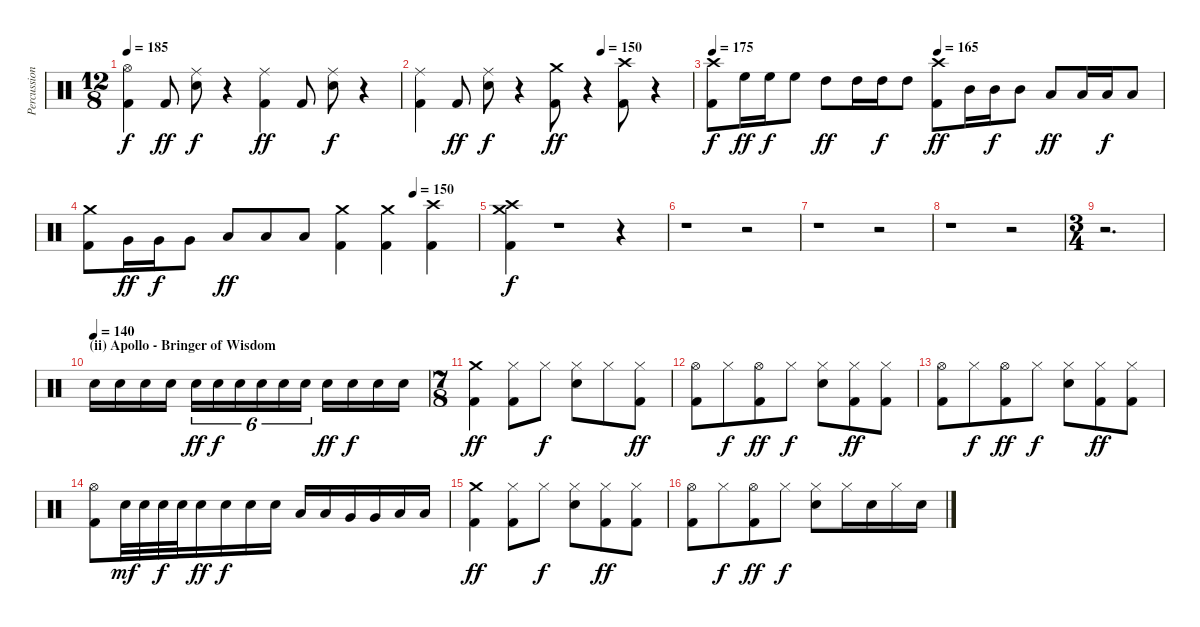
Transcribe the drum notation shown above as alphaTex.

\track ("Percussion" "Percussion") {instrument percussion}
\staff {score}
\articulation defaults
\ts (12 8)
\tempo 185
\clef neutral
\ks c
("Kick (hit) 2" "Hi-Hat (open)").4{dy f} "Kick (hit) 2".8{dy ff} ("Snare (hit) 2" "Ride (middle)").8{dy f} r.4 ("Kick (hit) 2" "Ride (middle)").4{dy ff} "Kick (hit) 2".8 ("Snare (hit) 2" "Ride (middle)").8{dy f} r.4 |
\tempo (150 0.6666666666666666)
("Kick (hit) 2" "Ride (middle)").4 "Kick (hit) 2".8{dy ff} ("Snare (hit) 2" "Ride (middle)").8{dy f} r.4 ("Kick (hit) 2" "Crash medium (hit)").8{dy ff} r.4 ("Kick (hit) 2" "Crash high (hit)").8 r.4 |
\tempo 175
\tempo (165 0.5)
("Kick (hit) 2" "Crash high (hit)").8{dy f} "High Floor Tom (hit)".16{dy ff} "High Floor Tom (hit)".16{dy f} "High Floor Tom (hit)".8 "High Tom (hit)".8{dy ff} "High Tom (hit)".16 "High Tom (hit)".16{dy f} "High Tom (hit)".8 ("Kick (hit) 2" "Crash high (hit)").8{dy ff} "Mid Tom (hit)".16 "Mid Tom (hit)".16{dy f} "Mid Tom (hit)".8 "Low Tom (hit)".8{dy ff} "Low Tom (hit)".16 "Low Tom (hit)".16{dy f} "Low Tom (hit)".8 |
\tempo (150 0.8333333333333334)
("Kick (hit) 2" "Crash medium (hit)").8 "Very Low Tom (hit)".16{dy ff} "Very Low Tom (hit)".16{dy f} "Very Low Tom (hit)".8 "Low Floor Tom (hit)".8{dy ff} "Low Floor Tom (hit)".8 "Low Floor Tom (hit)".8 ("Kick (hit) 2" "Crash medium (hit)").4 ("Kick (hit) 2" "Crash medium (hit)").4 ("Kick (hit) 2" "Crash high (hit)").4 |
("Kick (hit) 2" "Crash high (hit)" "Crash medium (hit)").4{dy f} r.1 r.4 |
r.1 r.2 |
r.1 r.2 |
r.1 r.2 |
\ts (3 4)
r.2{d} |
\section ("" "(ii) Apollo - Bringer of Wisdom")
\tempo (140)
"Snare (hit) 2".16 "Snare (hit) 2".16 "Snare (hit) 2".16 "Snare (hit) 2".16 "Snare (hit) 2".16{tu (6 4) dy ff} "Snare (hit) 2".16{tu (6 4) dy f} "Snare (hit) 2".16{tu (6 4)} "Snare (hit) 2".16{tu (6 4)} "Snare (hit) 2".16{tu (6 4)} "Snare (hit) 2".16{tu (6 4)} "Snare (hit) 2".16{dy ff} "Snare (hit) 2".16{dy f} "Snare (hit) 2".16 "Snare (hit) 2".16 |
\ts (7 8)
("Kick (hit) 2" "Crash medium (hit)").4{dy ff} ("Kick (hit) 2" "Hi-Hat (closed)").8 "Hi-Hat (closed)".8{dy f} ("Snare (hit) 2" "Hi-Hat (closed)").8 "Hi-Hat (closed)".8 ("Kick (hit) 2" "Hi-Hat (closed)").8{dy ff} |
("Kick (hit) 2" "Hi-Hat (open)").8 "Hi-Hat (closed)".8{dy f} ("Kick (hit) 2" "Hi-Hat (open)").8{dy ff} "Hi-Hat (closed)".8{dy f} ("Snare (hit) 2" "Hi-Hat (closed)").8 ("Kick (hit) 2" "Hi-Hat (closed)").8{dy ff} ("Kick (hit) 2" "Hi-Hat (closed)").8 |
("Kick (hit) 2" "Hi-Hat (open)").8 "Hi-Hat (closed)".8{dy f} ("Kick (hit) 2" "Hi-Hat (open)").8{dy ff} "Hi-Hat (closed)".8{dy f} ("Snare (hit) 2" "Hi-Hat (closed)").8 ("Kick (hit) 2" "Hi-Hat (closed)").8{dy ff} ("Kick (hit) 2" "Hi-Hat (closed)").8 |
("Kick (hit) 2" "Hi-Hat (open)").8 "Snare (hit) 2".32{dy mf} "Snare (hit) 2".32 "Snare (hit) 2".32{dy f} "Snare (hit) 2".32 "Snare (hit) 2".16{dy ff} "Snare (hit) 2".16{dy f} "Snare (hit) 2".16 "Snare (hit) 2".16 "Low Tom (hit)".16 "Low Tom (hit)".16 "Very Low Tom (hit)".16 "Very Low Tom (hit)".16 "Low Floor Tom (hit)".16 "Low Floor Tom (hit)".16 |
("Kick (hit) 2" "Crash medium (hit)").4{dy ff} ("Kick (hit) 2" "Hi-Hat (closed)").8 "Hi-Hat (closed)".8{dy f} ("Snare (hit) 2" "Hi-Hat (closed)").8 ("Kick (hit) 2" "Hi-Hat (closed)").8{dy ff} ("Kick (hit) 2" "Hi-Hat (closed)").8 |
("Kick (hit) 2" "Hi-Hat (open)").8 "Hi-Hat (closed)".8{dy f} ("Kick (hit) 2" "Hi-Hat (open)").8{dy ff} "Hi-Hat (closed)".8{dy f} ("Snare (hit) 2" "Hi-Hat (closed)").8 "Hi-Hat (closed)".16 "Snare (hit) 2".16 "Hi-Hat (closed)".16 "Snare (hit) 2".16
